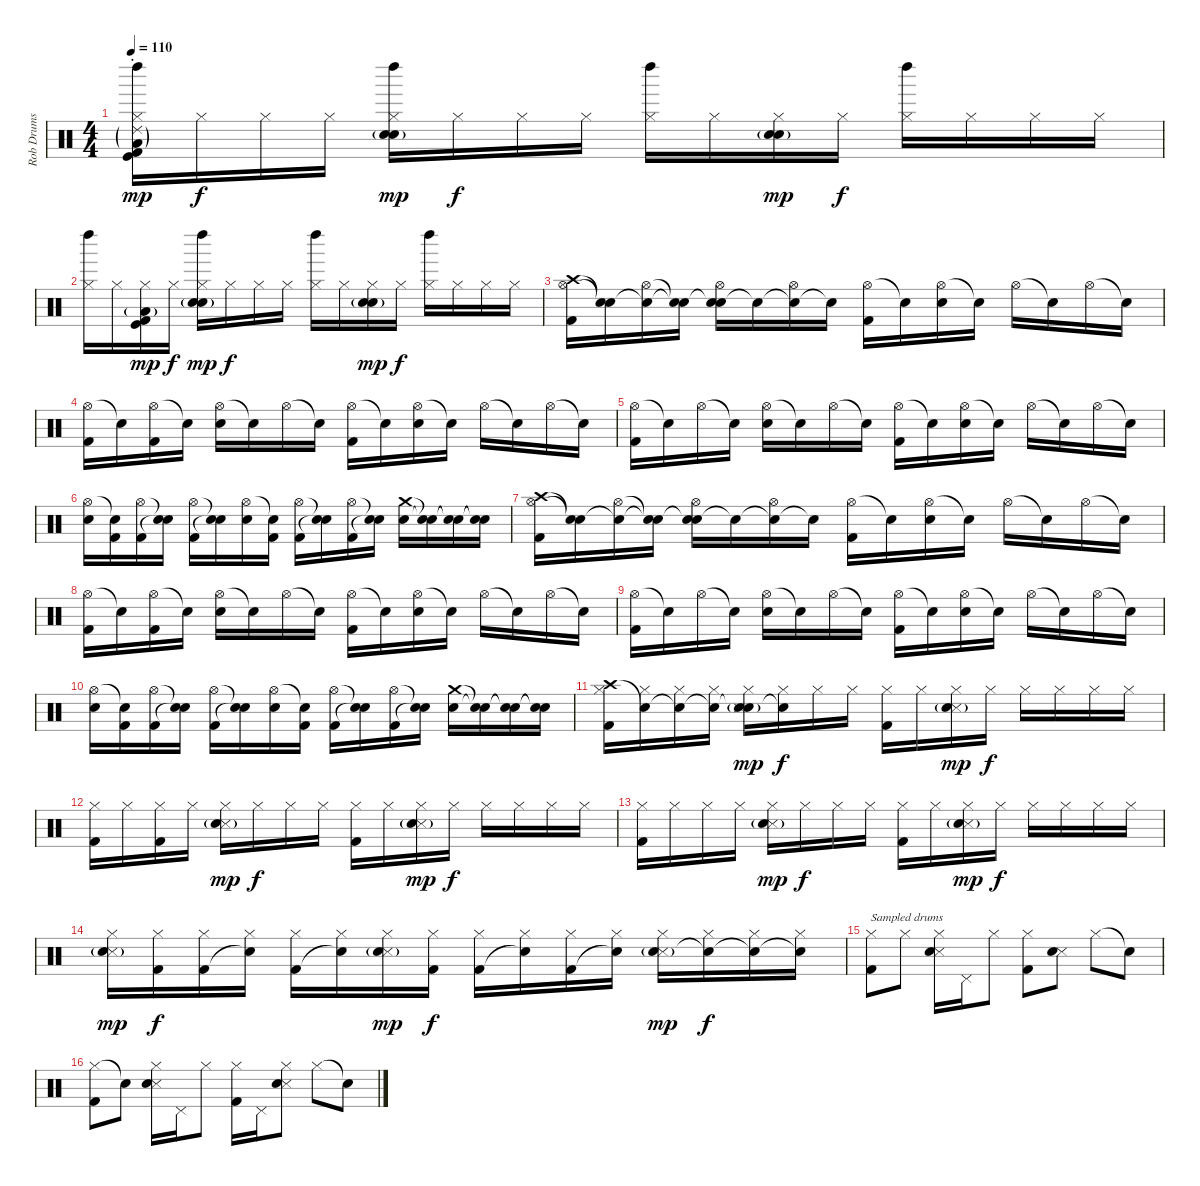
\track ("Rob Drums" "Rob Drums") {instrument percussion}
\staff {score}
\articulation defaults
\ts (4 4)
\tempo 110
\clef neutral
\ks c
("Left Maraca (hit)" "Ride (choke) 2"{g} "Hi-Hat (closed)" "Kick (hit)" "Kick (hit) 2" "Low Floor Tom (hit)"{g}).16{dy mp volume 16} "Hi-Hat (closed)".16{dy f} "Hi-Hat (closed)".16 "Hi-Hat (closed)".16 ("Left Maraca (hit)" "Hi-Hat (closed)" "Electric Snare (hit)"{g} "Hand Clap (hit)").16{dy mp} "Hi-Hat (closed)".16{dy f} "Hi-Hat (closed)".16 "Hi-Hat (closed)".16 ("Left Maraca (hit)" "Hi-Hat (closed)").16 "Hi-Hat (closed)".16 ("Hi-Hat (closed)" "Electric Snare (hit)"{g} "Hand Clap (hit)").16{dy mp} "Hi-Hat (closed)".16{dy f} ("Left Maraca (hit)" "Hi-Hat (closed)").16 "Hi-Hat (closed)".16 "Hi-Hat (closed)".16 "Hi-Hat (closed)".16 |
("Left Maraca (hit)" "Hi-Hat (closed)").16{volume 16} "Hi-Hat (closed)".16 ("Hi-Hat (closed)" "Kick (hit)" "Kick (hit) 2" "Low Floor Tom (hit)"{g}).16{dy mp} "Hi-Hat (closed)".16{dy f} ("Left Maraca (hit)" "Hi-Hat (closed)" "Electric Snare (hit)"{g} "Hand Clap (hit)").16{dy mp} "Hi-Hat (closed)".16{dy f} "Hi-Hat (closed)".16 "Hi-Hat (closed)".16 ("Left Maraca (hit)" "Hi-Hat (closed)").16 "Hi-Hat (closed)".16 ("Hi-Hat (closed)" "Electric Snare (hit)"{g} "Hand Clap (hit)").16{dy mp} "Hi-Hat (closed)".16{dy f} ("Left Maraca (hit)" "Hi-Hat (closed)").16 "Hi-Hat (closed)".16 "Hi-Hat (closed)".16 "Hi-Hat (closed)".16 |
("Crash high (hit)" "Hi-Hat (open)" "Kick (hit) 2").16{volume 13} ("Snare (hit)"{t} "Snare (hit)"{t}).16 ("Snare (hit)"{t} "Hi-Hat (open)").16 ("Snare (hit)"{t} "Snare (hit)"{t}).16 ("Snare (hit)"{t} "Hi-Hat (open)" "Electric Snare (hit)").16 "Snare (hit)"{t}.16 ("Snare (hit)"{t} "Hi-Hat (open)").16 "Snare (hit)"{t}.16 ("Hi-Hat (open)" "Kick (hit) 2").16 "Snare (hit)"{t}.16 ("Hi-Hat (open)" "Electric Snare (hit)").16 "Snare (hit)"{t}.16 "Hi-Hat (open)".16 "Snare (hit)"{t}.16 "Hi-Hat (open)".16 "Snare (hit)"{t}.16 |
("Hi-Hat (open)" "Kick (hit) 2").16 "Snare (hit)"{t}.16 ("Hi-Hat (open)" "Kick (hit) 2").16 "Snare (hit)"{t}.16 ("Hi-Hat (open)" "Electric Snare (hit)").16 "Snare (hit)"{t}.16 "Hi-Hat (open)".16 "Snare (hit)"{t}.16 ("Hi-Hat (open)" "Kick (hit) 2").16 "Snare (hit)"{t}.16 ("Hi-Hat (open)" "Electric Snare (hit)").16 "Snare (hit)"{t}.16 "Hi-Hat (open)".16 "Snare (hit)"{t}.16 "Hi-Hat (open)".16 "Snare (hit)"{t}.16 |
("Hi-Hat (open)" "Kick (hit) 2").16 "Snare (hit)"{t}.16 "Hi-Hat (open)".16 "Snare (hit)"{t}.16 ("Hi-Hat (open)" "Electric Snare (hit)").16 "Snare (hit)"{t}.16 "Hi-Hat (open)".16 "Snare (hit)"{t}.16 ("Hi-Hat (open)" "Kick (hit) 2").16 "Snare (hit)"{t}.16 ("Hi-Hat (open)" "Electric Snare (hit)").16 "Snare (hit)"{t}.16 "Hi-Hat (open)".16 "Snare (hit)"{t}.16 "Hi-Hat (open)".16 "Snare (hit)"{t}.16 |
("Hi-Hat (open)" "Electric Snare (hit)").16 ("Snare (hit)"{t} "Kick (hit) 2").16 ("Hi-Hat (open)" "Kick (hit) 2").16 ("Snare (hit)"{t} "Snare (hit)"{t}).16 ("Hi-Hat (open)" "Kick (hit) 2").16 ("Snare (hit)"{t} "Snare (hit)"{t}).16 ("Hi-Hat (open)" "Electric Snare (hit)").16 ("Snare (hit)"{t} "Kick (hit) 2").16 ("Hi-Hat (open)" "Kick (hit) 2").16 ("Snare (hit)"{t} "Snare (hit)"{t}).16 ("Hi-Hat (open)" "Kick (hit) 2").16 ("Snare (hit)"{t} "Snare (hit)"{t}).16 ("Crash medium (hit)" "Electric Snare (hit)").16 ("Snare (hit)"{t} "Snare (hit)"{t}).16 ("Snare (hit)"{t} "Snare (hit)"{t}).16 ("Snare (hit)"{t} "Snare (hit)"{t}).16 |
("Crash high (hit)" "Hi-Hat (open)" "Kick (hit) 2").16 ("Snare (hit)"{t} "Snare (hit)"{t}).16 ("Snare (hit)"{t} "Hi-Hat (open)").16 ("Snare (hit)"{t} "Snare (hit)"{t}).16 ("Snare (hit)"{t} "Hi-Hat (open)" "Electric Snare (hit)").16 "Snare (hit)"{t}.16 ("Snare (hit)"{t} "Hi-Hat (open)").16 "Snare (hit)"{t}.16 ("Hi-Hat (open)" "Kick (hit) 2").16 "Snare (hit)"{t}.16 ("Hi-Hat (open)" "Electric Snare (hit)").16 "Snare (hit)"{t}.16 "Hi-Hat (open)".16 "Snare (hit)"{t}.16 "Hi-Hat (open)".16 "Snare (hit)"{t}.16 |
("Hi-Hat (open)" "Kick (hit) 2").16 "Snare (hit)"{t}.16 ("Hi-Hat (open)" "Kick (hit) 2").16 "Snare (hit)"{t}.16 ("Hi-Hat (open)" "Electric Snare (hit)").16 "Snare (hit)"{t}.16 "Hi-Hat (open)".16 "Snare (hit)"{t}.16 ("Hi-Hat (open)" "Kick (hit) 2").16 "Snare (hit)"{t}.16 ("Hi-Hat (open)" "Electric Snare (hit)").16 "Snare (hit)"{t}.16 "Hi-Hat (open)".16 "Snare (hit)"{t}.16 "Hi-Hat (open)".16 "Snare (hit)"{t}.16 |
("Hi-Hat (open)" "Kick (hit) 2").16 "Snare (hit)"{t}.16 "Hi-Hat (open)".16 "Snare (hit)"{t}.16 ("Hi-Hat (open)" "Electric Snare (hit)").16 "Snare (hit)"{t}.16 "Hi-Hat (open)".16 "Snare (hit)"{t}.16 ("Hi-Hat (open)" "Kick (hit) 2").16 "Snare (hit)"{t}.16 ("Hi-Hat (open)" "Electric Snare (hit)").16 "Snare (hit)"{t}.16 "Hi-Hat (open)".16 "Snare (hit)"{t}.16 "Hi-Hat (open)".16 "Snare (hit)"{t}.16 |
("Hi-Hat (open)" "Electric Snare (hit)").16 ("Snare (hit)"{t} "Kick (hit) 2").16 ("Hi-Hat (open)" "Kick (hit) 2").16 ("Snare (hit)"{t} "Snare (hit)"{t}).16 ("Hi-Hat (open)" "Kick (hit) 2").16 ("Snare (hit)"{t} "Snare (hit)"{t}).16 ("Hi-Hat (open)" "Electric Snare (hit)").16 ("Snare (hit)"{t} "Kick (hit) 2").16 ("Hi-Hat (open)" "Kick (hit) 2").16 ("Snare (hit)"{t} "Snare (hit)"{t}).16 ("Hi-Hat (open)" "Kick (hit) 2").16 ("Snare (hit)"{t} "Snare (hit)"{t}).16 ("Crash medium (hit)" "Electric Snare (hit)").16 ("Snare (hit)"{t} "Snare (hit)"{t}).16 ("Snare (hit)"{t} "Snare (hit)"{t}).16 ("Snare (hit)"{t} "Snare (hit)"{t}).16 |
("Crash high (hit)" "Hi-Hat (closed)" "Kick (hit) 2").16{volume 10} ("Snare (hit)"{t} "Hi-Hat (closed)").16 ("Snare (hit)"{t} "Hi-Hat (closed)").16 ("Snare (hit)"{t} "Hi-Hat (closed)").16 ("Snare (hit)"{t} "Hi-Hat (closed)" "Snare (side stick) 3" "Electric Snare (hit)"{g}).16{dy mp} ("Snare (hit)"{t} "Hi-Hat (closed)").16{dy f} "Hi-Hat (closed)".16 "Hi-Hat (closed)".16 ("Hi-Hat (closed)" "Kick (hit) 2").16 "Hi-Hat (closed)".16 ("Hi-Hat (closed)" "Snare (side stick) 3" "Electric Snare (hit)"{g}).16{dy mp} "Hi-Hat (closed)".16{dy f} "Hi-Hat (closed)".16 "Hi-Hat (closed)".16 "Hi-Hat (closed)".16 "Hi-Hat (closed)".16 |
("Hi-Hat (closed)" "Kick (hit) 2").16{volume 10} "Hi-Hat (closed)".16 ("Hi-Hat (closed)" "Kick (hit) 2").16 "Hi-Hat (closed)".16 ("Hi-Hat (closed)" "Snare (side stick) 3" "Electric Snare (hit)"{g}).16{dy mp} "Hi-Hat (closed)".16{dy f} "Hi-Hat (closed)".16 "Hi-Hat (closed)".16 ("Hi-Hat (closed)" "Kick (hit) 2").16 "Hi-Hat (closed)".16 ("Hi-Hat (closed)" "Snare (side stick) 3" "Electric Snare (hit)"{g}).16{dy mp} "Hi-Hat (closed)".16{dy f} "Hi-Hat (closed)".16 "Hi-Hat (closed)".16 "Hi-Hat (closed)".16 "Hi-Hat (closed)".16 |
("Hi-Hat (closed)" "Kick (hit) 2").16{volume 10} "Hi-Hat (closed)".16 "Hi-Hat (closed)".16 "Hi-Hat (closed)".16 ("Hi-Hat (closed)" "Snare (side stick) 3" "Electric Snare (hit)"{g}).16{dy mp} "Hi-Hat (closed)".16{dy f} "Hi-Hat (closed)".16 "Hi-Hat (closed)".16 ("Hi-Hat (closed)" "Kick (hit) 2").16 "Hi-Hat (closed)".16 ("Hi-Hat (closed)" "Snare (side stick) 3" "Electric Snare (hit)"{g}).16{dy mp} "Hi-Hat (closed)".16{dy f} "Hi-Hat (closed)".16 "Hi-Hat (closed)".16 "Hi-Hat (closed)".16 "Hi-Hat (closed)".16 |
("Hi-Hat (closed)" "Snare (side stick) 3" "Electric Snare (hit)"{g}).16{dy mp} ("Hi-Hat (closed)" "Kick (hit) 2").16{dy f} ("Hi-Hat (closed)" "Kick (hit) 2").16 ("Hi-Hat (closed)" "Snare (hit)"{t}).16 ("Hi-Hat (closed)" "Kick (hit) 2").16 ("Hi-Hat (closed)" "Snare (hit)"{t}).16 ("Hi-Hat (closed)" "Snare (side stick) 3" "Electric Snare (hit)"{g}).16{dy mp} ("Hi-Hat (closed)" "Kick (hit) 2").16{dy f} ("Hi-Hat (closed)" "Kick (hit) 2").16 ("Hi-Hat (closed)" "Snare (hit)"{t}).16 ("Hi-Hat (closed)" "Kick (hit) 2").16 ("Hi-Hat (closed)" "Snare (hit)"{t}).16 ("Hi-Hat (closed)" "Snare (side stick) 3" "Electric Snare (hit)"{g}).16{dy mp} ("Hi-Hat (closed)" "Snare (hit)"{t}).16{dy f} ("Hi-Hat (closed)" "Snare (hit)"{t}).16 ("Hi-Hat (closed)" "Snare (hit)"{t}).16 |
("Hi-Hat (closed)" "Kick (hit) 2").8{txt "Sampled drums"} "Hi-Hat (closed)".8 ("Hi-Hat (closed)" "Snare (side stick) 3" "Hand Clap (hit)").16 "Pedal Hi-Hat (hit)".16 "Hi-Hat (closed)".8 ("Hi-Hat (closed)" "Kick (hit) 2").8 ("Snare (side stick) 3" "Hand Clap (hit)").8 "Hi-Hat (closed)".8 "Snare (hit)"{t}.8 |
("Hi-Hat (closed)" "Kick (hit) 2").8 "Snare (hit)"{t}.8 ("Hi-Hat (closed)" "Snare (side stick) 3" "Hand Clap (hit)").16 "Pedal Hi-Hat (hit)".16 "Hi-Hat (closed)".8 ("Hi-Hat (closed)" "Kick (hit) 2").16 "Pedal Hi-Hat (hit)".16 ("Hi-Hat (closed)" "Snare (side stick) 3" "Hand Clap (hit)").8 "Hi-Hat (closed)".8 "Snare (hit)"{t}.8
